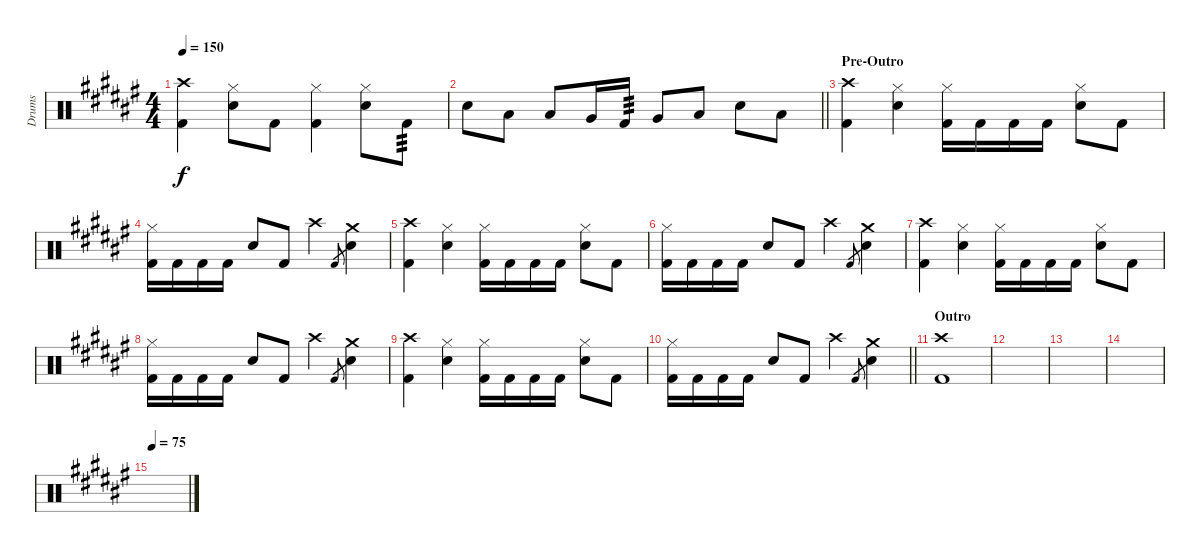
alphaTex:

\track ("Drums" "Drums") {instrument percussion}
\staff {score}
\articulation defaults
\ts (4 4)
\tempo 150
\clef neutral
\ks f#
("Crash high (hit)" "Kick (hit) 2").4{dy f} ("Electric Snare (hit)" "Hi-Hat (closed)").8 "Kick (hit) 2".8 ("Hi-Hat (closed)" "Kick (hit) 2").4 ("Electric Snare (hit)" "Hi-Hat (closed)").8 "Kick (hit) 2".8{tp 3} |
\barLineRight lightlight "Electric Snare (hit)".8 "Low Tom (hit)".8 "Low Tom (hit)".8 "Very Low Tom (hit)".16 "Kick (hit) 2".16{tp 3} "Very Low Tom (hit)".8 "Low Floor Tom (hit)".8 "Electric Snare (hit)".8 "Low Floor Tom (hit)".8
|
\section ("" "Pre-Outro")
("Crash high (hit)" "Kick (hit) 2").4 ("Hi-Hat (closed)" "Electric Snare (hit)").4 ("Hi-Hat (closed)" "Kick (hit) 2").16 "Kick (hit) 2".16 "Kick (hit) 2".16 "Kick (hit) 2".16 ("Hi-Hat (closed)" "Electric Snare (hit)").8 "Kick (hit) 2".8 |
("Hi-Hat (closed)" "Kick (hit) 2").16 "Kick (hit) 2".16 "Kick (hit) 2".16 "Kick (hit) 2".16 "Electric Snare (hit)".8 "Kick (hit) 2".8 "Crash high (hit)".4 "Kick (hit) 2".8{gr} ("Crash medium (hit)" "Electric Snare (hit)").4 |
("Crash high (hit)" "Kick (hit) 2").4 ("Hi-Hat (closed)" "Electric Snare (hit)").4 ("Hi-Hat (closed)" "Kick (hit) 2").16 "Kick (hit) 2".16 "Kick (hit) 2".16 "Kick (hit) 2".16 ("Hi-Hat (closed)" "Electric Snare (hit)").8 "Kick (hit) 2".8 |
("Hi-Hat (closed)" "Kick (hit) 2").16 "Kick (hit) 2".16 "Kick (hit) 2".16 "Kick (hit) 2".16 "Electric Snare (hit)".8 "Kick (hit) 2".8 "Crash high (hit)".4 "Kick (hit) 2".8{gr} ("Crash medium (hit)" "Electric Snare (hit)").4 |
("Crash high (hit)" "Kick (hit) 2").4 ("Hi-Hat (closed)" "Electric Snare (hit)").4 ("Hi-Hat (closed)" "Kick (hit) 2").16 "Kick (hit) 2".16 "Kick (hit) 2".16 "Kick (hit) 2".16 ("Hi-Hat (closed)" "Electric Snare (hit)").8 "Kick (hit) 2".8 |
("Hi-Hat (closed)" "Kick (hit) 2").16 "Kick (hit) 2".16 "Kick (hit) 2".16 "Kick (hit) 2".16 "Electric Snare (hit)".8 "Kick (hit) 2".8 "Crash high (hit)".4 "Kick (hit) 2".8{gr} ("Crash medium (hit)" "Electric Snare (hit)").4 |
("Crash high (hit)" "Kick (hit) 2").4 ("Hi-Hat (closed)" "Electric Snare (hit)").4 ("Hi-Hat (closed)" "Kick (hit) 2").16 "Kick (hit) 2".16 "Kick (hit) 2".16 "Kick (hit) 2".16 ("Hi-Hat (closed)" "Electric Snare (hit)").8 "Kick (hit) 2".8 |
\barLineRight lightlight
("Hi-Hat (closed)" "Kick (hit) 2").16 "Kick (hit) 2".16 "Kick (hit) 2".16 "Kick (hit) 2".16 "Electric Snare (hit)".8 "Kick (hit) 2".8 "Crash high (hit)".4 "Kick (hit) 2".8{gr} ("Crash medium (hit)" "Electric Snare (hit)").4 |
\section ("" "Outro")
("Crash high (hit)" "Kick (hit) 2").1 |
|
|
|
\tempo 75
